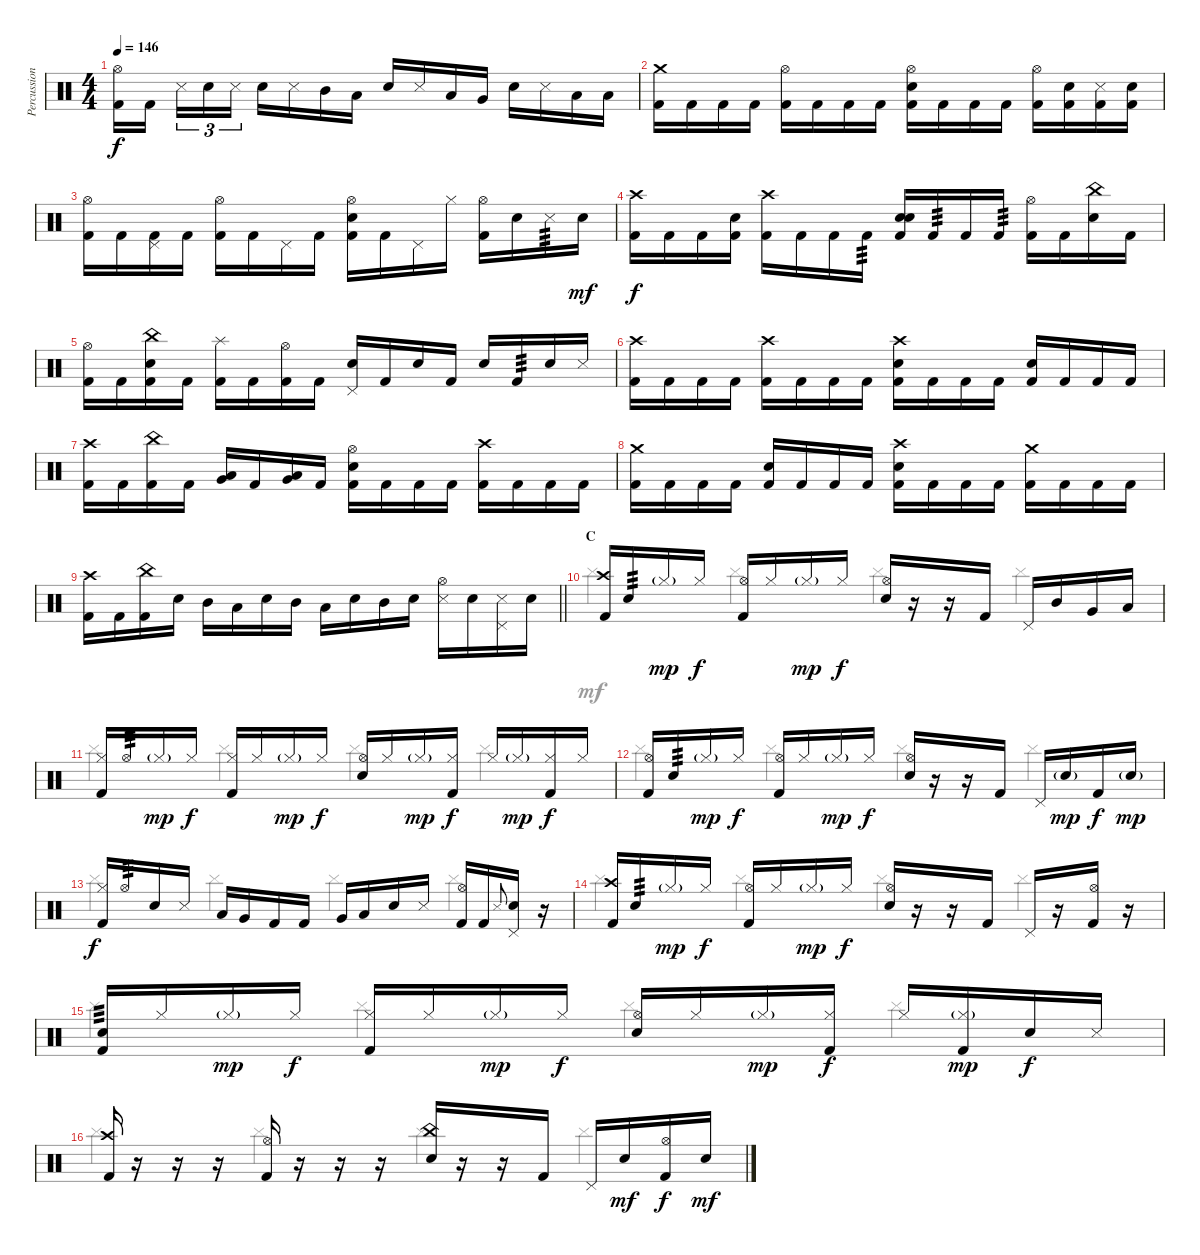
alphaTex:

\track ("Percussion" "Percussion") {instrument percussion}
\staff {score}
\articulation defaults
\voice
\ts (4 4)
\tempo 146
\clef neutral
\ks c
("Hi-Hat (open)" "Kick (hit) 2").16{dy f} "Kick (hit) 2".16{beam splitsecondary} "Metronome (hit)".16{tu (3 2)} "Snare (hit) 2".16{tu (3 2)} "Metronome (hit)".16{tu (3 2)} "Snare (hit) 2".16 "Metronome (hit)".16 "Mid Tom (hit)".16 "Low Tom (hit)".16 "Snare (hit) 2".16 "Metronome (hit)".16 "Low Tom (hit)".16 "Very Low Tom (hit)".16 "Snare (hit) 2".16 "Metronome (hit)".16 "Low Floor Tom (hit)".16 "Low Floor Tom (hit)".16 |
("Crash medium (hit)" "Kick (hit) 2").16 "Kick (hit) 2".16 "Kick (hit) 2".16 "Kick (hit) 2".16 ("Hi-Hat (open)" "Kick (hit) 2").16 "Kick (hit) 2".16 "Kick (hit) 2".16 "Kick (hit) 2".16 ("Hi-Hat (open)" "Snare (hit) 2" "Kick (hit) 2").16 "Kick (hit) 2".16 "Kick (hit) 2".16 "Kick (hit) 2".16 ("Hi-Hat (open)" "Kick (hit) 2").16 ("Snare (hit) 2" "Kick (hit) 2").16 ("Metronome (hit)" "Kick (hit) 2").16 ("Snare (hit) 2" "Kick (hit) 2").16 |
("Hi-Hat (open)" "Kick (hit) 2").16 "Kick (hit) 2".16 ("Pedal Hi-Hat (hit)" "Kick (hit) 2").16 "Kick (hit) 2".16 ("Hi-Hat (open)" "Kick (hit) 2").16 "Kick (hit) 2".16 "Pedal Hi-Hat (hit)".16 "Kick (hit) 2".16 ("Hi-Hat (open)" "Snare (hit) 2" "Kick (hit) 2").16 "Kick (hit) 2".16 "Pedal Hi-Hat (hit)".16 "Hi-Hat (closed)".16 ("Hi-Hat (open)" "Kick (hit) 2").16 "Snare (hit) 2".16 "Metronome (hit)".16{tp 3} "Snare (hit) 2".16{dy mf} |
("Crash high (hit)" "Kick (hit) 2").16{dy f} "Kick (hit) 2".16 "Kick (hit) 2".16 ("Snare (hit) 2" "Kick (hit) 2").16 ("Crash high (hit)" "Kick (hit) 2").16 "Kick (hit) 2".16 "Kick (hit) 2".16 "Kick (hit) 2".16{tp 3} ("Snare (hit)" "Snare (hit) 2" "Kick (hit) 2").16 "Kick (hit) 2".16{tp 3} "Kick (hit) 2".16 "Kick (hit) 2".16{tp 3} ("Hi-Hat (open)" "Kick (hit) 2").16 "Kick (hit) 2".16 ("China (hit)" "Snare (hit) 2").16 "Kick (hit) 2".16 |
("Hi-Hat (open)" "Kick (hit) 2").16 "Kick (hit) 2".16 ("China (hit)" "Snare (hit) 2" "Kick (hit) 2").16 "Kick (hit) 2".16 ("Splash (hit)" "Kick (hit) 2").16 "Kick (hit) 2".16 ("Hi-Hat (open)" "Kick (hit) 2").16 "Kick (hit) 2".16 ("Pedal Hi-Hat (hit)" "Snare (hit) 2").16 "Kick (hit) 2".16 "Snare (hit) 2".16 "Kick (hit) 2".16 "Snare (hit) 2".16 "Kick (hit) 2".16{tp 3} "Snare (hit) 2".16 "Metronome (hit)".16 |
("Crash high (hit)" "Kick (hit) 2").16 "Kick (hit) 2".16 "Kick (hit) 2".16 "Kick (hit) 2".16 ("Crash high (hit)" "Kick (hit) 2").16 "Kick (hit) 2".16 "Kick (hit) 2".16 "Kick (hit) 2".16 ("Crash high (hit)" "Snare (hit) 2" "Kick (hit) 2").16 "Kick (hit) 2".16 "Kick (hit) 2".16 "Kick (hit) 2".16 ("Snare (hit)" "Kick (hit) 2").16 "Kick (hit) 2".16 "Kick (hit) 2".16 "Kick (hit) 2".16 |
("Crash high (hit)" "Kick (hit) 2").16 "Kick (hit) 2".16 ("China (hit)" "Kick (hit) 2").16 "Kick (hit) 2".16 ("Low Tom (hit)" "Very Low Tom (hit)").16{bu 60} "Kick (hit) 2".16 ("Low Tom (hit)" "Very Low Tom (hit)").16{bu 60} "Kick (hit) 2".16 ("Hi-Hat (open)" "Snare (hit) 2" "Kick (hit) 2").16 "Kick (hit) 2".16 "Kick (hit) 2".16 "Kick (hit) 2".16 ("Crash high (hit)" "Kick (hit) 2").16 "Kick (hit) 2".16 "Kick (hit) 2".16 "Kick (hit) 2".16 |
("Crash medium (hit)" "Kick (hit) 2").16 "Kick (hit) 2".16 "Kick (hit) 2".16 "Kick (hit) 2".16 ("Snare (hit)" "Kick (hit) 2").16 "Kick (hit) 2".16 "Kick (hit) 2".16 "Kick (hit) 2".16 ("Crash high (hit)" "Snare (hit) 2" "Kick (hit) 2").16 "Kick (hit) 2".16 "Kick (hit) 2".16 "Kick (hit) 2".16 ("Crash medium (hit)" "Kick (hit) 2").16 "Kick (hit) 2".16 "Kick (hit) 2".16 "Kick (hit) 2".16 |
\barLineRight lightlight
("Crash high (hit)" "Kick (hit) 2").16 "Kick (hit) 2".16 ("China (hit)" "Kick (hit) 2").16 "Snare (hit) 2".16 "Mid Tom (hit)".16 "Low Tom (hit)".16 "Snare (hit) 2".16 "Mid Tom (hit)".16 "Low Tom (hit)".16 "Snare (hit) 2".16 "Mid Tom (hit)".16 "Snare (hit) 2".16 ("Hi-Hat (open)" "Metronome (hit)").16 "Snare (hit) 2".16 ("Pedal Hi-Hat (hit)" "Metronome (hit)").16 "Snare (hit) 2".16 |
\section ("" "C")
("Crash high (hit)" "Kick (hit) 2").16 "Snare (hit)".16{tp 3} "Hi-Hat (closed)"{g}.16{dy mp} "Hi-Hat (closed)".16{dy f} ("Hi-Hat (open)" "Kick (hit) 2").16 "Hi-Hat (closed)".16 "Hi-Hat (closed)"{g}.16{dy mp} "Hi-Hat (closed)".16{dy f} ("Hi-Hat (open)" "Snare (hit) 2").16 r.16 r.16 "Kick (hit) 2".16 "Pedal Hi-Hat (hit)".16 "Mid Tom (hit)".16 "Very Low Tom (hit)".16 "Low Tom (hit)".16 |
("Hi-Hat (closed)" "Kick (hit) 2").16 "Hi-Hat (open)".16{tp 3} "Hi-Hat (closed)"{g}.16{dy mp} "Hi-Hat (closed)".16{dy f} ("Hi-Hat (closed)" "Kick (hit) 2").16 "Hi-Hat (closed)".16 "Hi-Hat (closed)"{g}.16{dy mp} "Hi-Hat (closed)".16{dy f} ("Hi-Hat (open)" "Snare (hit) 2").16 "Hi-Hat (closed)".16 "Hi-Hat (closed)"{g}.16{dy mp} ("Hi-Hat (closed)" "Kick (hit) 2").16{dy f} "Hi-Hat (closed)".16 "Hi-Hat (closed)"{g}.16{dy mp} ("Hi-Hat (closed)" "Kick (hit) 2").16{dy f} "Hi-Hat (closed)".16 |
("Hi-Hat (open)" "Kick (hit) 2").16 "Snare (hit)".16{tp 3} "Hi-Hat (closed)"{g}.16{dy mp} "Hi-Hat (closed)".16{dy f} ("Hi-Hat (open)" "Kick (hit) 2").16 "Hi-Hat (closed)".16 "Hi-Hat (closed)"{g}.16{dy mp} "Hi-Hat (closed)".16{dy f} ("Hi-Hat (open)" "Snare (hit) 2").16 r.16 r.16 "Kick (hit) 2".16 "Pedal Hi-Hat (hit)".16 "Snare (hit) 2"{g}.16{dy mp} "Kick (hit) 2".16{dy f} "Snare (hit) 2"{g}.16{dy mp} |
("Hi-Hat (closed)" "Kick (hit) 2").16{dy f} "Hi-Hat (open)".16{tp 3} "Snare (hit) 2".16 "Metronome (hit)".16 "Low Tom (hit)".16 "Very Low Tom (hit)".16 "Kick (hit) 2".16 "Kick (hit) 2".16 "Very Low Tom (hit)".16 "Low Tom (hit)".16 "Snare (hit) 2".16 "Metronome (hit)".16 ("Hi-Hat (open)" "Kick (hit) 2").16 "Kick (hit) 2".16 "Metronome (hit)".8{gr onbeat} ("Pedal Hi-Hat (hit)" "Snare (hit) 2").16 r.16 |
("Crash high (hit)" "Kick (hit) 2").16 "Snare (hit)".16{tp 3} "Hi-Hat (closed)"{g}.16{dy mp} "Hi-Hat (closed)".16{dy f} ("Hi-Hat (open)" "Kick (hit) 2").16 "Hi-Hat (closed)".16 "Hi-Hat (closed)"{g}.16{dy mp} "Hi-Hat (closed)".16{dy f} ("Hi-Hat (open)" "Snare (hit) 2").16 r.16 r.16 "Kick (hit) 2".16 "Pedal Hi-Hat (hit)".16 r.16 ("Hi-Hat (open)" "Kick (hit) 2").16 r.16 |
("Snare (hit)" "Kick (hit) 2").16{tp 3} "Hi-Hat (closed)".16 "Hi-Hat (closed)"{g}.16{dy mp} "Hi-Hat (closed)".16{dy f} ("Hi-Hat (closed)" "Kick (hit) 2").16 "Hi-Hat (closed)".16 "Hi-Hat (closed)"{g}.16{dy mp} "Hi-Hat (closed)".16{dy f} ("Hi-Hat (open)" "Snare (hit) 2").16 "Hi-Hat (closed)".16 "Hi-Hat (closed)"{g}.16{dy mp} ("Hi-Hat (closed)" "Kick (hit) 2").16{dy f} "Hi-Hat (closed)".16 ("Hi-Hat (closed)"{g} "Kick (hit) 2").16{dy mp} "Snare (hit) 2".16{dy f} "Metronome (hit)".16 |
("Crash high (hit)" "Kick (hit) 2").16 r.16 r.16 r.16 ("Hi-Hat (open)" "Kick (hit) 2").16 r.16 r.16 r.16 ("China (hit)" "Snare (hit) 2").16 r.16 r.16 "Kick (hit) 2".16 "Pedal Hi-Hat (hit)".16 "Snare (hit) 2".16{dy mf} ("Hi-Hat (open)" "Kick (hit) 2").16{dy f} "Snare (hit) 2".16{dy mf}
\voice
\clef neutral
\ottava regular
\simile none
\ks c
|
|
|
|
|
|
|
|
\barLineRight lightlight
|
"Cymbal (hit)".4 "Cymbal (hit)".4 "Cymbal (hit)".4 "Cymbal (hit)".4 |
"Cymbal (hit)".4 "Cymbal (hit)".4 "Cymbal (hit)".4 "Cymbal (hit)".4 |
"Cymbal (hit)".4 "Cymbal (hit)".4 "Cymbal (hit)".4 "Cymbal (hit)".4 |
"Cymbal (hit)".4 "Cymbal (hit)".4 "Cymbal (hit)".4 "Cymbal (hit)".4 |
"Cymbal (hit)".4 "Cymbal (hit)".4 "Cymbal (hit)".4 "Cymbal (hit)".4 |
"Cymbal (hit)".4 "Cymbal (hit)".4 "Cymbal (hit)".4 "Cymbal (hit)".4 |
"Cymbal (hit)".4 "Cymbal (hit)".4 "Cymbal (hit)".4 "Cymbal (hit)".4
